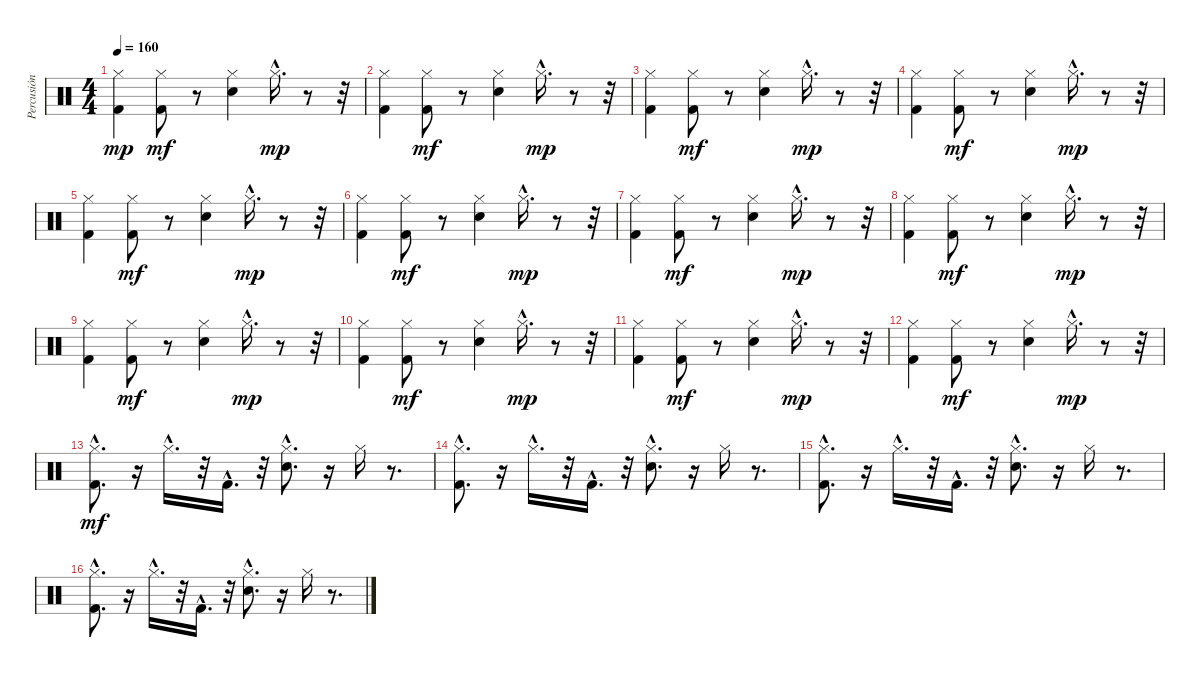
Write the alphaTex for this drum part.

\track ("Percusión" "Percusión") {instrument percussion}
\staff {score}
\articulation defaults
\ts (4 4)
\tempo 160
\clef neutral
\ks c
("Hi-Hat (closed)" "Kick (hit) 2").4{dy mp} ("Hi-Hat (closed)" "Kick (hit) 2").8{dy mf} r.8 ("Hi-Hat (closed)" "Electric Snare (hit)").4 "Hi-Hat (closed)"{hac}.16{d dy mp} r.8 r.32 |
("Hi-Hat (closed)" "Kick (hit) 2").4 ("Hi-Hat (closed)" "Kick (hit) 2").8{dy mf} r.8 ("Hi-Hat (closed)" "Electric Snare (hit)").4 "Hi-Hat (closed)"{hac}.16{d dy mp} r.8 r.32 |
("Hi-Hat (closed)" "Kick (hit) 2").4 ("Hi-Hat (closed)" "Kick (hit) 2").8{dy mf} r.8 ("Hi-Hat (closed)" "Electric Snare (hit)").4 "Hi-Hat (closed)"{hac}.16{d dy mp} r.8 r.32 |
("Hi-Hat (closed)" "Kick (hit) 2").4 ("Hi-Hat (closed)" "Kick (hit) 2").8{dy mf} r.8 ("Hi-Hat (closed)" "Electric Snare (hit)").4 "Hi-Hat (closed)"{hac}.16{d dy mp} r.8 r.32 |
("Hi-Hat (closed)" "Kick (hit) 2").4 ("Hi-Hat (closed)" "Kick (hit) 2").8{dy mf} r.8 ("Hi-Hat (closed)" "Electric Snare (hit)").4 "Hi-Hat (closed)"{hac}.16{d dy mp} r.8 r.32 |
("Hi-Hat (closed)" "Kick (hit) 2").4 ("Hi-Hat (closed)" "Kick (hit) 2").8{dy mf} r.8 ("Hi-Hat (closed)" "Electric Snare (hit)").4 "Hi-Hat (closed)"{hac}.16{d dy mp} r.8 r.32 |
("Hi-Hat (closed)" "Kick (hit) 2").4 ("Hi-Hat (closed)" "Kick (hit) 2").8{dy mf} r.8 ("Hi-Hat (closed)" "Electric Snare (hit)").4 "Hi-Hat (closed)"{hac}.16{d dy mp} r.8 r.32 |
("Hi-Hat (closed)" "Kick (hit) 2").4 ("Hi-Hat (closed)" "Kick (hit) 2").8{dy mf} r.8 ("Hi-Hat (closed)" "Electric Snare (hit)").4 "Hi-Hat (closed)"{hac}.16{d dy mp} r.8 r.32 |
("Hi-Hat (closed)" "Kick (hit) 2").4 ("Hi-Hat (closed)" "Kick (hit) 2").8{dy mf} r.8 ("Hi-Hat (closed)" "Electric Snare (hit)").4 "Hi-Hat (closed)"{hac}.16{d dy mp} r.8 r.32 |
("Hi-Hat (closed)" "Kick (hit) 2").4 ("Hi-Hat (closed)" "Kick (hit) 2").8{dy mf} r.8 ("Hi-Hat (closed)" "Electric Snare (hit)").4 "Hi-Hat (closed)"{hac}.16{d dy mp} r.8 r.32 |
("Hi-Hat (closed)" "Kick (hit) 2").4 ("Hi-Hat (closed)" "Kick (hit) 2").8{dy mf} r.8 ("Hi-Hat (closed)" "Electric Snare (hit)").4 "Hi-Hat (closed)"{hac}.16{d dy mp} r.8 r.32 |
("Hi-Hat (closed)" "Kick (hit) 2").4 ("Hi-Hat (closed)" "Kick (hit) 2").8{dy mf} r.8 ("Hi-Hat (closed)" "Electric Snare (hit)").4 "Hi-Hat (closed)"{hac}.16{d dy mp} r.8 r.32 |
("Hi-Hat (closed)"{hac} "Kick (hit) 2"{hac}).8{d dy mf} r.16 "Hi-Hat (closed)"{hac}.16{d} r.32 "Kick (hit) 2"{hac}.16{d} r.32 ("Hi-Hat (closed)"{hac} "Electric Snare (hit)"{hac}).8{d} r.16 "Hi-Hat (closed)".16 r.8{d} |
("Hi-Hat (closed)"{hac} "Kick (hit) 2"{hac}).8{d} r.16 "Hi-Hat (closed)"{hac}.16{d} r.32 "Kick (hit) 2"{hac}.16{d} r.32 ("Hi-Hat (closed)"{hac} "Electric Snare (hit)"{hac}).8{d} r.16 "Hi-Hat (closed)".16 r.8{d} |
("Hi-Hat (closed)"{hac} "Kick (hit) 2"{hac}).8{d} r.16 "Hi-Hat (closed)"{hac}.16{d} r.32 "Kick (hit) 2"{hac}.16{d} r.32 ("Hi-Hat (closed)"{hac} "Electric Snare (hit)"{hac}).8{d} r.16 "Hi-Hat (closed)".16 r.8{d} |
("Hi-Hat (closed)"{hac} "Kick (hit) 2"{hac}).8{d} r.16 "Hi-Hat (closed)"{hac}.16{d} r.32 "Kick (hit) 2"{hac}.16{d} r.32 ("Hi-Hat (closed)"{hac} "Electric Snare (hit)"{hac}).8{d} r.16 "Hi-Hat (closed)".16 r.8{d}
